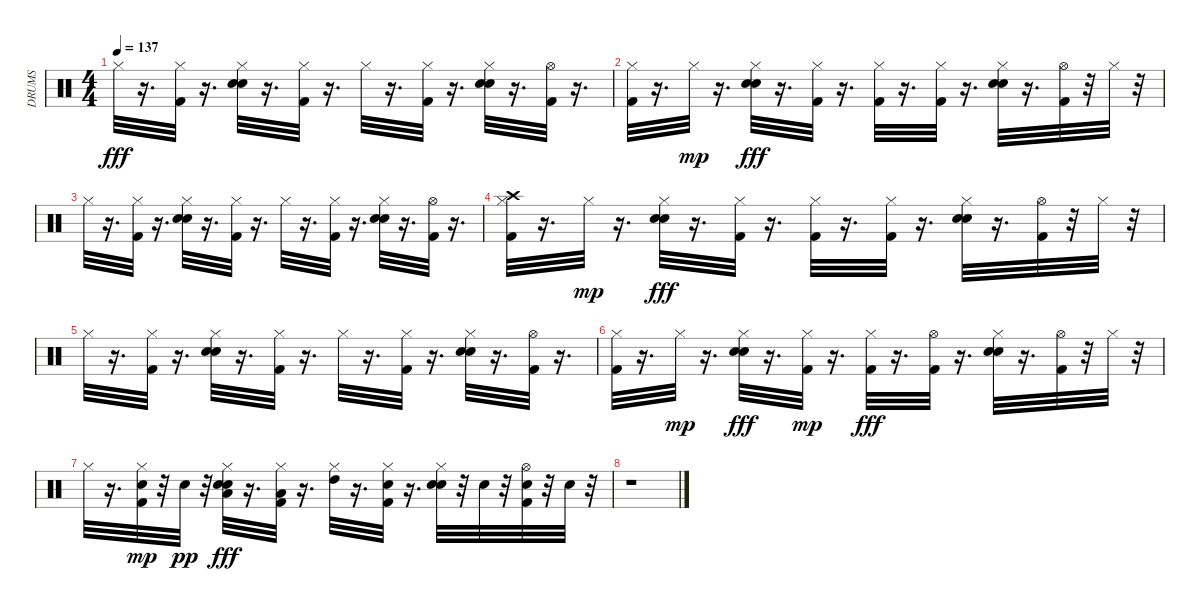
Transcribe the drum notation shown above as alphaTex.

\track ("DRUMS" "DRUMS") {instrument percussion}
\staff {score}
\articulation defaults
\ts (4 4)
\tempo 137
\clef neutral
\ks c "Hi-Hat (closed)".32{dy fff}
r.16{d} ("Hi-Hat (closed)" "Kick (hit) 2").32 r.16{d} ("Hand Clap (hit)" "Hi-Hat (closed)" "Snare (hit) 2").32 r.16{d} ("Hi-Hat (closed)" "Kick (hit) 2").32 r.16{d} "Hi-Hat (closed)".32 r.16{d} ("Hi-Hat (closed)" "Kick (hit) 2").32 r.16{d} ("Hand Clap (hit)" "Hi-Hat (closed)" "Snare (hit) 2").32 r.16{d} ("Kick (hit) 2" "Hi-Hat (open)").32 r.16{d} |
("Hi-Hat (closed)" "Kick (hit) 2").32 r.16{d} "Hi-Hat (closed)".32{dy mp} r.16{d} ("Hand Clap (hit)" "Hi-Hat (closed)" "Snare (hit) 2").32{dy fff} r.16{d} ("Hi-Hat (closed)" "Kick (hit) 2").32 r.16{d} ("Hi-Hat (closed)" "Kick (hit) 2").32 r.16{d} ("Hi-Hat (closed)" "Kick (hit) 2").32 r.16{d} ("Hand Clap (hit)" "Hi-Hat (closed)" "Snare (hit) 2").32 r.16{d} ("Hi-Hat (open)" "Kick (hit) 2").32 r.32 "Hi-Hat (closed)".32 r.32 |
"Hi-Hat (closed)".32 r.16{d} ("Kick (hit) 2" "Hi-Hat (closed)").32 r.16{d} ("Hand Clap (hit)" "Hi-Hat (closed)" "Snare (hit) 2").32 r.16{d} ("Hi-Hat (closed)" "Kick (hit) 2").32 r.16{d} "Hi-Hat (closed)".32 r.16{d} ("Hi-Hat (closed)" "Kick (hit) 2").32 r.16{d} ("Hand Clap (hit)" "Hi-Hat (closed)" "Snare (hit) 2").32 r.16{d} ("Kick (hit) 2" "Hi-Hat (open)").32 r.16{d} |
("Crash high (hit)" "Hi-Hat (closed)" "Kick (hit) 2").32 r.16{d} "Hi-Hat (closed)".32{dy mp} r.16{d} ("Hand Clap (hit)" "Hi-Hat (closed)" "Snare (hit) 2").32{dy fff} r.16{d} ("Hi-Hat (closed)" "Kick (hit) 2").32 r.16{d} ("Hi-Hat (closed)" "Kick (hit) 2").32 r.16{d} ("Hi-Hat (closed)" "Kick (hit) 2").32 r.16{d} ("Hand Clap (hit)" "Hi-Hat (closed)" "Snare (hit) 2").32 r.16{d} ("Hi-Hat (open)" "Kick (hit) 2").32 r.32 "Hi-Hat (closed)".32 r.32 |
"Hi-Hat (closed)".32 r.16{d} ("Hi-Hat (closed)" "Kick (hit) 2").32 r.16{d} ("Hand Clap (hit)" "Hi-Hat (closed)" "Snare (hit) 2").32 r.16{d} ("Hi-Hat (closed)" "Kick (hit) 2").32 r.16{d} "Hi-Hat (closed)".32 r.16{d} ("Hi-Hat (closed)" "Kick (hit) 2").32 r.16{d} ("Hand Clap (hit)" "Hi-Hat (closed)" "Snare (hit) 2").32 r.16{d} ("Hi-Hat (open)" "Kick (hit) 2").32 r.16{d} |
("Hi-Hat (closed)" "Kick (hit) 2").32 r.16{d} "Hi-Hat (closed)".32{dy mp} r.16{d} ("Hand Clap (hit)" "Hi-Hat (closed)" "Snare (hit) 2").32{dy fff} r.16{d} ("Kick (hit) 2" "Hi-Hat (closed)").32{dy mp} r.16{d} ("Hi-Hat (closed)" "Kick (hit) 2").32{dy fff} r.16{d} ("Hi-Hat (open)" "Kick (hit) 2").32 r.16{d} ("Hand Clap (hit)" "Hi-Hat (closed)" "Snare (hit) 2").32 r.16{d} ("Hi-Hat (open)" "Kick (hit) 2").32 r.32 "Hi-Hat (closed)".32 r.32 |
"Hi-Hat (closed)".32 r.16{d} ("Kick (hit) 2" "Hi-Hat (closed)" "Snare (hit) 2").32{dy mp} r.32 "Snare (hit) 2".32{dy pp} r.32 ("Snare (hit) 2" "Hand Clap (hit)" "Low Floor Tom (hit)" "Hi-Hat (closed)").32{dy fff} r.16{d} ("Low Tom (hit)" "Hi-Hat (closed)" "Kick (hit) 2").32 r.16{d} ("High Tom (hit)" "Hi-Hat (closed)").32 r.16{d} ("Hi-Hat (closed)" "Snare (hit) 2" "Kick (hit) 2").32 r.16{d} ("Hand Clap (hit)" "Hi-Hat (closed)" "Snare (hit) 2").32 r.32 "Snare (hit) 2".32 r.32 ("Hi-Hat (open)" "Snare (hit) 2" "Kick (hit) 2").32 r.32 "Snare (hit) 2".32 r.32 |
r.1
